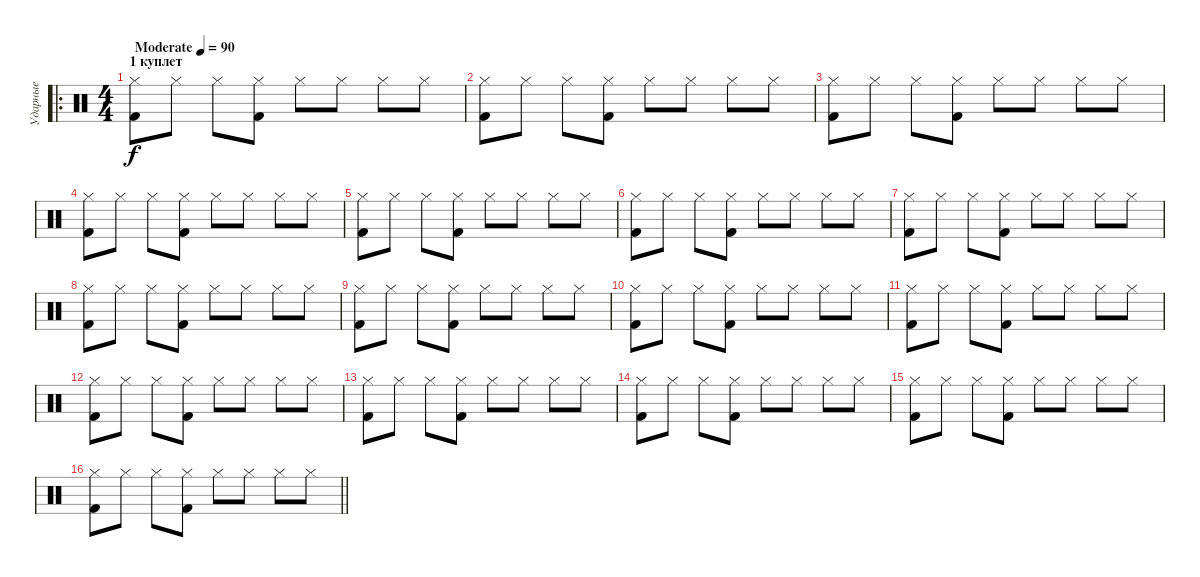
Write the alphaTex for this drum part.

\track ("Ударные" "Ударные") {instrument percussion}
\staff {score}
\articulation defaults
\ro
\ts (4 4)
\section ("" "1 куплет")
\tempo (90 "Moderate")
\clef neutral
\ks c
("Hi-Hat (closed)" "Kick (hit) 2").8{dy f} "Hi-Hat (closed)".8 "Hi-Hat (closed)".8 ("Hi-Hat (closed)" "Kick (hit) 2").8 "Hi-Hat (closed)".8 "Hi-Hat (closed)".8 "Hi-Hat (closed)".8 "Hi-Hat (closed)".8 |
("Hi-Hat (closed)" "Kick (hit) 2").8 "Hi-Hat (closed)".8 "Hi-Hat (closed)".8 ("Hi-Hat (closed)" "Kick (hit) 2").8 "Hi-Hat (closed)".8 "Hi-Hat (closed)".8 "Hi-Hat (closed)".8 "Hi-Hat (closed)".8 |
("Hi-Hat (closed)" "Kick (hit) 2").8 "Hi-Hat (closed)".8 "Hi-Hat (closed)".8 ("Hi-Hat (closed)" "Kick (hit) 2").8 "Hi-Hat (closed)".8 "Hi-Hat (closed)".8 "Hi-Hat (closed)".8 "Hi-Hat (closed)".8 |
("Hi-Hat (closed)" "Kick (hit) 2").8 "Hi-Hat (closed)".8 "Hi-Hat (closed)".8 ("Hi-Hat (closed)" "Kick (hit) 2").8 "Hi-Hat (closed)".8 "Hi-Hat (closed)".8 "Hi-Hat (closed)".8 "Hi-Hat (closed)".8 |
("Hi-Hat (closed)" "Kick (hit) 2").8 "Hi-Hat (closed)".8 "Hi-Hat (closed)".8 ("Hi-Hat (closed)" "Kick (hit) 2").8 "Hi-Hat (closed)".8 "Hi-Hat (closed)".8 "Hi-Hat (closed)".8 "Hi-Hat (closed)".8 |
("Hi-Hat (closed)" "Kick (hit) 2").8 "Hi-Hat (closed)".8 "Hi-Hat (closed)".8 ("Hi-Hat (closed)" "Kick (hit) 2").8 "Hi-Hat (closed)".8 "Hi-Hat (closed)".8 "Hi-Hat (closed)".8 "Hi-Hat (closed)".8 |
("Hi-Hat (closed)" "Kick (hit) 2").8 "Hi-Hat (closed)".8 "Hi-Hat (closed)".8 ("Hi-Hat (closed)" "Kick (hit) 2").8 "Hi-Hat (closed)".8 "Hi-Hat (closed)".8 "Hi-Hat (closed)".8 "Hi-Hat (closed)".8 |
("Hi-Hat (closed)" "Kick (hit) 2").8 "Hi-Hat (closed)".8 "Hi-Hat (closed)".8 ("Hi-Hat (closed)" "Kick (hit) 2").8 "Hi-Hat (closed)".8 "Hi-Hat (closed)".8 "Hi-Hat (closed)".8 "Hi-Hat (closed)".8 |
("Hi-Hat (closed)" "Kick (hit) 2").8 "Hi-Hat (closed)".8 "Hi-Hat (closed)".8 ("Hi-Hat (closed)" "Kick (hit) 2").8 "Hi-Hat (closed)".8 "Hi-Hat (closed)".8 "Hi-Hat (closed)".8 "Hi-Hat (closed)".8 |
("Hi-Hat (closed)" "Kick (hit) 2").8 "Hi-Hat (closed)".8 "Hi-Hat (closed)".8 ("Hi-Hat (closed)" "Kick (hit) 2").8 "Hi-Hat (closed)".8 "Hi-Hat (closed)".8 "Hi-Hat (closed)".8 "Hi-Hat (closed)".8 |
("Hi-Hat (closed)" "Kick (hit) 2").8 "Hi-Hat (closed)".8 "Hi-Hat (closed)".8 ("Hi-Hat (closed)" "Kick (hit) 2").8 "Hi-Hat (closed)".8 "Hi-Hat (closed)".8 "Hi-Hat (closed)".8 "Hi-Hat (closed)".8 |
("Hi-Hat (closed)" "Kick (hit) 2").8 "Hi-Hat (closed)".8 "Hi-Hat (closed)".8 ("Hi-Hat (closed)" "Kick (hit) 2").8 "Hi-Hat (closed)".8 "Hi-Hat (closed)".8 "Hi-Hat (closed)".8 "Hi-Hat (closed)".8 |
("Hi-Hat (closed)" "Kick (hit) 2").8 "Hi-Hat (closed)".8 "Hi-Hat (closed)".8 ("Hi-Hat (closed)" "Kick (hit) 2").8 "Hi-Hat (closed)".8 "Hi-Hat (closed)".8 "Hi-Hat (closed)".8 "Hi-Hat (closed)".8 |
("Hi-Hat (closed)" "Kick (hit) 2").8 "Hi-Hat (closed)".8 "Hi-Hat (closed)".8 ("Hi-Hat (closed)" "Kick (hit) 2").8 "Hi-Hat (closed)".8 "Hi-Hat (closed)".8 "Hi-Hat (closed)".8 "Hi-Hat (closed)".8 |
("Hi-Hat (closed)" "Kick (hit) 2").8 "Hi-Hat (closed)".8 "Hi-Hat (closed)".8 ("Hi-Hat (closed)" "Kick (hit) 2").8 "Hi-Hat (closed)".8 "Hi-Hat (closed)".8 "Hi-Hat (closed)".8 "Hi-Hat (closed)".8 |
\barLineRight lightlight
("Hi-Hat (closed)" "Kick (hit) 2").8 "Hi-Hat (closed)".8 "Hi-Hat (closed)".8 ("Hi-Hat (closed)" "Kick (hit) 2").8 "Hi-Hat (closed)".8 "Hi-Hat (closed)".8 "Hi-Hat (closed)".8 "Hi-Hat (closed)".8
